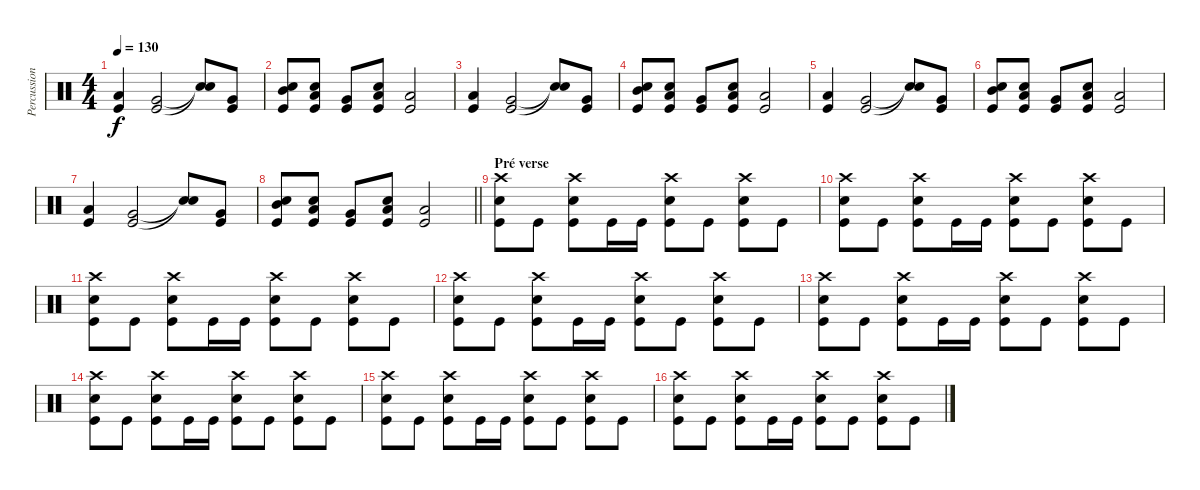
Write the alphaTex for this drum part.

\track ("Percussions" "Percussion") {instrument percussion}
\staff {score}
\articulation defaults
\ts (4 4)
\tempo 130
\clef neutral
\ks c
("Low Tom (hit)" "Kick (hit)").4{dy f} ("Very Low Tom (hit)" "Kick (hit)").2 ("Snare (hit)"{t} "Snare (hit)"{t}).8 ("Very Low Tom (hit)" "Kick (hit)").8 |
("Snare (hit) 2" "Mid Tom (hit)" "Kick (hit)").8 ("Snare (hit) 2" "Low Tom (hit)" "Kick (hit)").8 ("Very Low Tom (hit)" "Kick (hit)").8 ("Snare (hit) 2" "Low Tom (hit)" "Kick (hit)").8 ("Low Tom (hit)" "Kick (hit)").2 |
("Low Tom (hit)" "Kick (hit)").4 ("Very Low Tom (hit)" "Kick (hit)").2 ("Snare (hit)"{t} "Snare (hit)"{t}).8 ("Very Low Tom (hit)" "Kick (hit)").8 |
("Snare (hit) 2" "Mid Tom (hit)" "Kick (hit)").8 ("Snare (hit) 2" "Low Tom (hit)" "Kick (hit)").8 ("Very Low Tom (hit)" "Kick (hit)").8 ("Snare (hit) 2" "Low Tom (hit)" "Kick (hit)").8 ("Low Tom (hit)" "Kick (hit)").2 |
("Low Tom (hit)" "Kick (hit)").4 ("Very Low Tom (hit)" "Kick (hit)").2 ("Snare (hit)"{t} "Snare (hit)"{t}).8 ("Very Low Tom (hit)" "Kick (hit)").8 |
("Snare (hit) 2" "Mid Tom (hit)" "Kick (hit)").8 ("Snare (hit) 2" "Low Tom (hit)" "Kick (hit)").8 ("Very Low Tom (hit)" "Kick (hit)").8 ("Snare (hit) 2" "Low Tom (hit)" "Kick (hit)").8 ("Low Tom (hit)" "Kick (hit)").2 |
("Low Tom (hit)" "Kick (hit)").4 ("Very Low Tom (hit)" "Kick (hit)").2 ("Snare (hit)"{t} "Snare (hit)"{t}).8 ("Very Low Tom (hit)" "Kick (hit)").8 |
\barLineRight lightlight
("Snare (hit) 2" "Mid Tom (hit)" "Kick (hit)").8 ("Snare (hit) 2" "Low Tom (hit)" "Kick (hit)").8 ("Very Low Tom (hit)" "Kick (hit)").8 ("Snare (hit) 2" "Low Tom (hit)" "Kick (hit)").8 ("Low Tom (hit)" "Kick (hit)").2 |
\section ("" "Pré verse")
("Crash high (hit)" "Kick (hit)" "Snare (hit) 2").8 "Kick (hit)".8 ("Crash high (hit)" "Kick (hit)" "Snare (hit) 2").8 "Kick (hit)".16 "Kick (hit)".16 ("Crash high (hit)" "Kick (hit)" "Snare (hit) 2").8 "Kick (hit)".8 ("Crash high (hit)" "Kick (hit)" "Snare (hit) 2").8 "Kick (hit)".8 |
("Crash high (hit)" "Kick (hit)" "Snare (hit) 2").8 "Kick (hit)".8 ("Crash high (hit)" "Kick (hit)" "Snare (hit) 2").8 "Kick (hit)".16 "Kick (hit)".16 ("Crash high (hit)" "Kick (hit)" "Snare (hit) 2").8 "Kick (hit)".8 ("Crash high (hit)" "Kick (hit)" "Snare (hit) 2").8 "Kick (hit)".8 |
("Crash high (hit)" "Kick (hit)" "Snare (hit) 2").8 "Kick (hit)".8 ("Crash high (hit)" "Kick (hit)" "Snare (hit) 2").8 "Kick (hit)".16 "Kick (hit)".16 ("Crash high (hit)" "Kick (hit)" "Snare (hit) 2").8 "Kick (hit)".8 ("Crash high (hit)" "Kick (hit)" "Snare (hit) 2").8 "Kick (hit)".8 |
("Crash high (hit)" "Kick (hit)" "Snare (hit) 2").8 "Kick (hit)".8 ("Crash high (hit)" "Kick (hit)" "Snare (hit) 2").8 "Kick (hit)".16 "Kick (hit)".16 ("Crash high (hit)" "Kick (hit)" "Snare (hit) 2").8 "Kick (hit)".8 ("Crash high (hit)" "Kick (hit)" "Snare (hit) 2").8 "Kick (hit)".8 |
("Crash high (hit)" "Kick (hit)" "Snare (hit) 2").8 "Kick (hit)".8 ("Crash high (hit)" "Kick (hit)" "Snare (hit) 2").8 "Kick (hit)".16 "Kick (hit)".16 ("Crash high (hit)" "Kick (hit)" "Snare (hit) 2").8 "Kick (hit)".8 ("Crash high (hit)" "Kick (hit)" "Snare (hit) 2").8 "Kick (hit)".8 |
("Crash high (hit)" "Kick (hit)" "Snare (hit) 2").8 "Kick (hit)".8 ("Crash high (hit)" "Kick (hit)" "Snare (hit) 2").8 "Kick (hit)".16 "Kick (hit)".16 ("Crash high (hit)" "Kick (hit)" "Snare (hit) 2").8 "Kick (hit)".8 ("Crash high (hit)" "Kick (hit)" "Snare (hit) 2").8 "Kick (hit)".8 |
("Crash high (hit)" "Kick (hit)" "Snare (hit) 2").8 "Kick (hit)".8 ("Crash high (hit)" "Kick (hit)" "Snare (hit) 2").8 "Kick (hit)".16 "Kick (hit)".16 ("Crash high (hit)" "Kick (hit)" "Snare (hit) 2").8 "Kick (hit)".8 ("Crash high (hit)" "Kick (hit)" "Snare (hit) 2").8 "Kick (hit)".8 |
("Crash high (hit)" "Kick (hit)" "Snare (hit) 2").8 "Kick (hit)".8 ("Crash high (hit)" "Kick (hit)" "Snare (hit) 2").8 "Kick (hit)".16 "Kick (hit)".16 ("Crash high (hit)" "Kick (hit)" "Snare (hit) 2").8 "Kick (hit)".8 ("Crash high (hit)" "Kick (hit)" "Snare (hit) 2").8 "Kick (hit)".8
